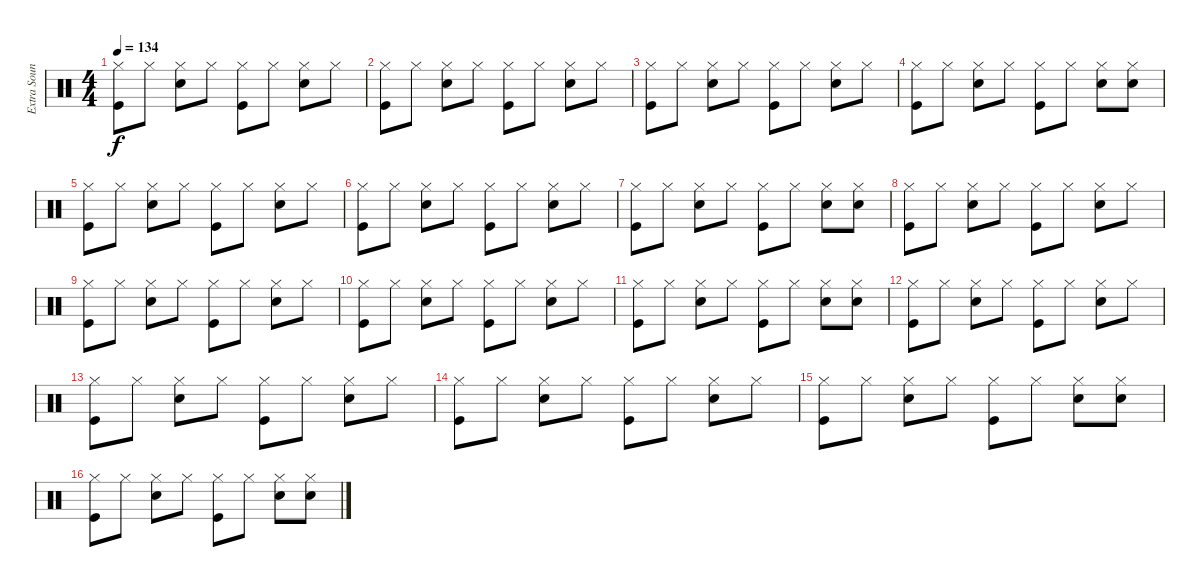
\track ("Extra Sounds" "Extra Soun") {instrument percussion}
\staff {score}
\articulation defaults
\ts (4 4)
\tempo 134
\clef neutral
\ks c
("Hi-Hat (closed)" "Kick (hit)").8{dy f} "Hi-Hat (closed)".8 ("Hi-Hat (closed)" "Snare (hit) 2").8 "Hi-Hat (closed)".8 ("Hi-Hat (closed)" "Kick (hit)").8 "Hi-Hat (closed)".8 ("Hi-Hat (closed)" "Snare (hit) 2").8 "Hi-Hat (closed)".8 |
("Hi-Hat (closed)" "Kick (hit)").8 "Hi-Hat (closed)".8 ("Hi-Hat (closed)" "Snare (hit) 2").8 "Hi-Hat (closed)".8 ("Hi-Hat (closed)" "Kick (hit)").8 "Hi-Hat (closed)".8 ("Hi-Hat (closed)" "Snare (hit) 2").8 "Hi-Hat (closed)".8 |
("Hi-Hat (closed)" "Kick (hit)").8 "Hi-Hat (closed)".8 ("Hi-Hat (closed)" "Snare (hit) 2").8 "Hi-Hat (closed)".8 ("Hi-Hat (closed)" "Kick (hit)").8 "Hi-Hat (closed)".8 ("Hi-Hat (closed)" "Snare (hit) 2").8 "Hi-Hat (closed)".8 |
("Hi-Hat (closed)" "Kick (hit)").8 "Hi-Hat (closed)".8 ("Hi-Hat (closed)" "Snare (hit) 2").8 "Hi-Hat (closed)".8 ("Hi-Hat (closed)" "Kick (hit)").8 "Hi-Hat (closed)".8 ("Hi-Hat (closed)" "Snare (hit) 2").8 ("Hi-Hat (closed)" "Snare (hit) 2").8 |
("Hi-Hat (closed)" "Kick (hit)").8 "Hi-Hat (closed)".8 ("Hi-Hat (closed)" "Snare (hit) 2").8 "Hi-Hat (closed)".8 ("Hi-Hat (closed)" "Kick (hit)").8 "Hi-Hat (closed)".8 ("Hi-Hat (closed)" "Snare (hit) 2").8 "Hi-Hat (closed)".8 |
("Hi-Hat (closed)" "Kick (hit)").8 "Hi-Hat (closed)".8 ("Hi-Hat (closed)" "Snare (hit) 2").8 "Hi-Hat (closed)".8 ("Hi-Hat (closed)" "Kick (hit)").8 "Hi-Hat (closed)".8 ("Hi-Hat (closed)" "Snare (hit) 2").8 "Hi-Hat (closed)".8 |
("Hi-Hat (closed)" "Kick (hit)").8 "Hi-Hat (closed)".8 ("Hi-Hat (closed)" "Snare (hit) 2").8 "Hi-Hat (closed)".8 ("Hi-Hat (closed)" "Kick (hit)").8 "Hi-Hat (closed)".8 ("Hi-Hat (closed)" "Snare (hit) 2").8 ("Hi-Hat (closed)" "Snare (hit) 2").8 |
("Hi-Hat (closed)" "Kick (hit)").8 "Hi-Hat (closed)".8 ("Hi-Hat (closed)" "Snare (hit) 2").8 "Hi-Hat (closed)".8 ("Hi-Hat (closed)" "Kick (hit)").8 "Hi-Hat (closed)".8 ("Hi-Hat (closed)" "Snare (hit) 2").8 "Hi-Hat (closed)".8 |
("Hi-Hat (closed)" "Kick (hit)").8 "Hi-Hat (closed)".8 ("Hi-Hat (closed)" "Snare (hit) 2").8 "Hi-Hat (closed)".8 ("Hi-Hat (closed)" "Kick (hit)").8 "Hi-Hat (closed)".8 ("Hi-Hat (closed)" "Snare (hit) 2").8 "Hi-Hat (closed)".8 |
("Hi-Hat (closed)" "Kick (hit)").8 "Hi-Hat (closed)".8 ("Hi-Hat (closed)" "Snare (hit) 2").8 "Hi-Hat (closed)".8 ("Hi-Hat (closed)" "Kick (hit)").8 "Hi-Hat (closed)".8 ("Hi-Hat (closed)" "Snare (hit) 2").8 "Hi-Hat (closed)".8 |
("Hi-Hat (closed)" "Kick (hit)").8 "Hi-Hat (closed)".8 ("Hi-Hat (closed)" "Snare (hit) 2").8 "Hi-Hat (closed)".8 ("Hi-Hat (closed)" "Kick (hit)").8 "Hi-Hat (closed)".8 ("Hi-Hat (closed)" "Snare (hit) 2").8 ("Hi-Hat (closed)" "Snare (hit) 2").8 |
("Hi-Hat (closed)" "Kick (hit)").8 "Hi-Hat (closed)".8 ("Hi-Hat (closed)" "Snare (hit) 2").8 "Hi-Hat (closed)".8 ("Hi-Hat (closed)" "Kick (hit)").8 "Hi-Hat (closed)".8 ("Hi-Hat (closed)" "Snare (hit) 2").8 "Hi-Hat (closed)".8 |
("Hi-Hat (closed)" "Kick (hit)").8 "Hi-Hat (closed)".8 ("Hi-Hat (closed)" "Snare (hit) 2").8 "Hi-Hat (closed)".8 ("Hi-Hat (closed)" "Kick (hit)").8 "Hi-Hat (closed)".8 ("Hi-Hat (closed)" "Snare (hit) 2").8 "Hi-Hat (closed)".8 |
("Hi-Hat (closed)" "Kick (hit)").8 "Hi-Hat (closed)".8 ("Hi-Hat (closed)" "Snare (hit) 2").8 "Hi-Hat (closed)".8 ("Hi-Hat (closed)" "Kick (hit)").8 "Hi-Hat (closed)".8 ("Hi-Hat (closed)" "Snare (hit) 2").8 "Hi-Hat (closed)".8 |
("Hi-Hat (closed)" "Kick (hit)").8 "Hi-Hat (closed)".8 ("Hi-Hat (closed)" "Snare (hit) 2").8 "Hi-Hat (closed)".8 ("Hi-Hat (closed)" "Kick (hit)").8 "Hi-Hat (closed)".8 ("Hi-Hat (closed)" "Snare (hit) 2").8 ("Hi-Hat (closed)" "Snare (hit) 2").8 |
("Hi-Hat (closed)" "Kick (hit)").8 "Hi-Hat (closed)".8 ("Hi-Hat (closed)" "Snare (hit) 2").8 "Hi-Hat (closed)".8 ("Hi-Hat (closed)" "Kick (hit)").8 "Hi-Hat (closed)".8 ("Hi-Hat (closed)" "Snare (hit) 2").8 ("Hi-Hat (closed)" "Snare (hit) 2").8
